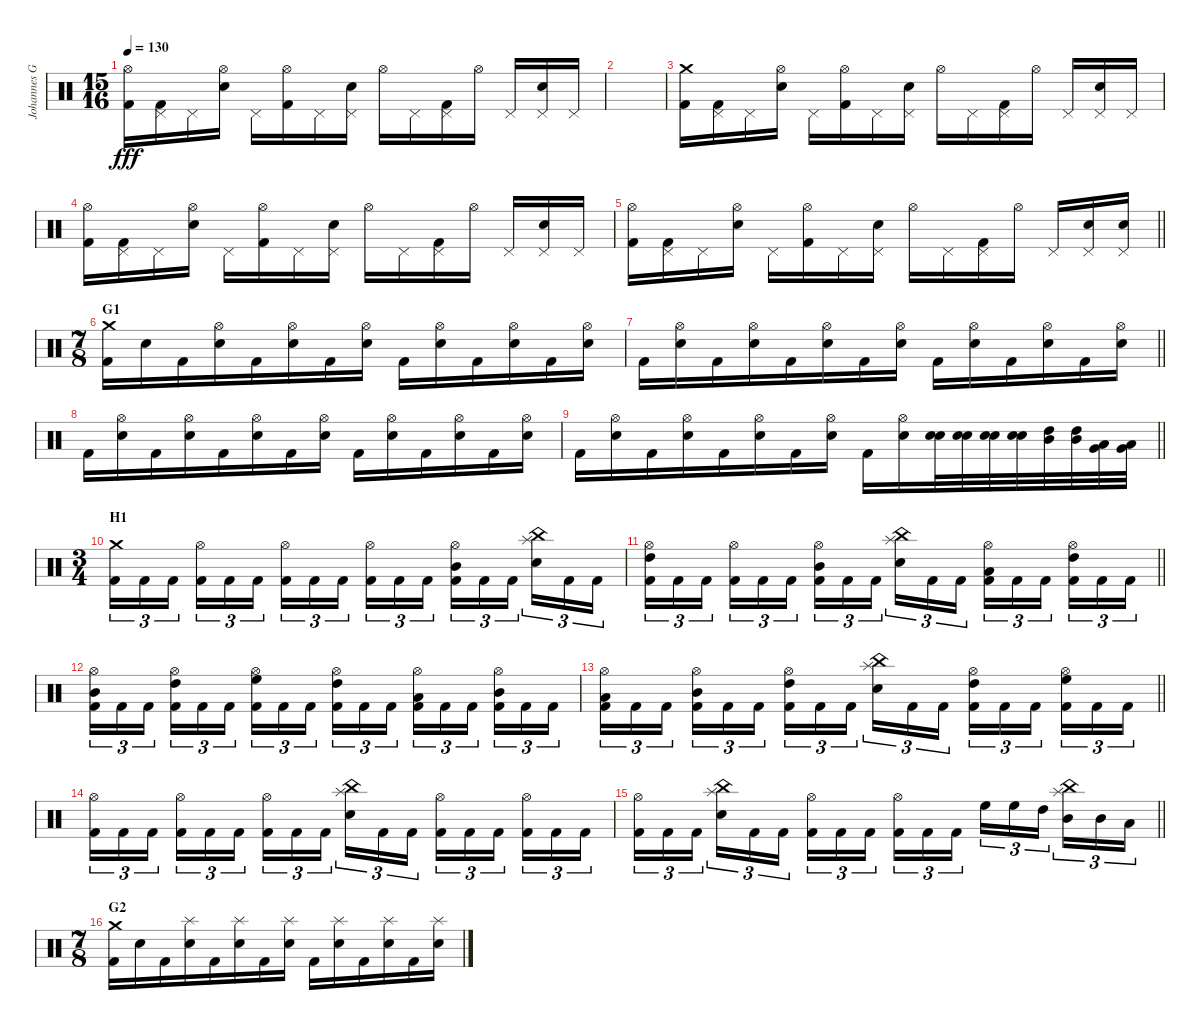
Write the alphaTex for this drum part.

\track ("Johannes Grossmann" "Johannes G") {instrument percussion}
\staff {score}
\articulation defaults
\ts (15 16)
\tempo 130
\clef neutral
\ks c
("Hi-Hat (open)" "Kick (hit) 2").16{dy fff} ("Pedal Hi-Hat (hit)" "Kick (hit) 2").16 "Pedal Hi-Hat (hit)".16 ("Hi-Hat (open)" "Snare (hit) 2").16 "Pedal Hi-Hat (hit)".16 ("Hi-Hat (open)" "Kick (hit) 2").16 "Pedal Hi-Hat (hit)".16 ("Pedal Hi-Hat (hit)" "Snare (hit) 2").16 "Hi-Hat (open)".16 "Pedal Hi-Hat (hit)".16 ("Pedal Hi-Hat (hit)" "Kick (hit) 2").16 "Hi-Hat (open)".16 "Pedal Hi-Hat (hit)".16 ("Pedal Hi-Hat (hit)" "Snare (hit) 2").16 "Pedal Hi-Hat (hit)".16 |
|
("Crash medium (hit)" "Kick (hit) 2").16 ("Pedal Hi-Hat (hit)" "Kick (hit) 2").16 "Pedal Hi-Hat (hit)".16 ("Hi-Hat (open)" "Snare (hit) 2").16 "Pedal Hi-Hat (hit)".16 ("Hi-Hat (open)" "Kick (hit) 2").16 "Pedal Hi-Hat (hit)".16 ("Pedal Hi-Hat (hit)" "Snare (hit) 2").16 "Hi-Hat (open)".16 "Pedal Hi-Hat (hit)".16 ("Pedal Hi-Hat (hit)" "Kick (hit) 2").16 "Hi-Hat (open)".16 "Pedal Hi-Hat (hit)".16 ("Pedal Hi-Hat (hit)" "Snare (hit) 2").16 "Pedal Hi-Hat (hit)".16 |
("Hi-Hat (open)" "Kick (hit) 2").16 ("Pedal Hi-Hat (hit)" "Kick (hit) 2").16 "Pedal Hi-Hat (hit)".16 ("Hi-Hat (open)" "Snare (hit) 2").16 "Pedal Hi-Hat (hit)".16 ("Hi-Hat (open)" "Kick (hit) 2").16 "Pedal Hi-Hat (hit)".16 ("Pedal Hi-Hat (hit)" "Snare (hit) 2").16 "Hi-Hat (open)".16 "Pedal Hi-Hat (hit)".16 ("Pedal Hi-Hat (hit)" "Kick (hit) 2").16 "Hi-Hat (open)".16 "Pedal Hi-Hat (hit)".16 ("Pedal Hi-Hat (hit)" "Snare (hit) 2").16 "Pedal Hi-Hat (hit)".16 |
\barLineRight lightlight
("Hi-Hat (open)" "Kick (hit) 2").16 ("Pedal Hi-Hat (hit)" "Kick (hit) 2").16 "Pedal Hi-Hat (hit)".16 ("Hi-Hat (open)" "Snare (hit) 2").16 "Pedal Hi-Hat (hit)".16 ("Hi-Hat (open)" "Kick (hit) 2").16 "Pedal Hi-Hat (hit)".16 ("Pedal Hi-Hat (hit)" "Snare (hit) 2").16 "Hi-Hat (open)".16 "Pedal Hi-Hat (hit)".16 ("Pedal Hi-Hat (hit)" "Kick (hit) 2").16 "Hi-Hat (open)".16 "Pedal Hi-Hat (hit)".16 ("Pedal Hi-Hat (hit)" "Snare (hit) 2").16 ("Pedal Hi-Hat (hit)" "Snare (hit) 2").16 |
\ts (7 8)
\section ("" "G1")
("Crash medium (hit)" "Kick (hit) 2").16 "Snare (hit) 2".16 "Kick (hit) 2".16 ("Hi-Hat (open)" "Snare (hit) 2").16 "Kick (hit) 2".16 ("Hi-Hat (open)" "Snare (hit) 2").16 "Kick (hit) 2".16 ("Hi-Hat (open)" "Snare (hit) 2").16 "Kick (hit) 2".16 ("Hi-Hat (open)" "Snare (hit) 2").16 "Kick (hit) 2".16 ("Hi-Hat (open)" "Snare (hit) 2").16 "Kick (hit) 2".16 ("Hi-Hat (open)" "Snare (hit) 2").16 |
\barLineRight lightlight "Kick (hit) 2".16
("Hi-Hat (open)" "Snare (hit) 2").16 "Kick (hit) 2".16 ("Hi-Hat (open)" "Snare (hit) 2").16 "Kick (hit) 2".16 ("Hi-Hat (open)" "Snare (hit) 2").16 "Kick (hit) 2".16 ("Hi-Hat (open)" "Snare (hit) 2").16 "Kick (hit) 2".16 ("Hi-Hat (open)" "Snare (hit) 2").16 "Kick (hit) 2".16 ("Hi-Hat (open)" "Snare (hit) 2").16 "Kick (hit) 2".16 ("Hi-Hat (open)" "Snare (hit) 2").16 |
"Kick (hit) 2".16 ("Hi-Hat (open)" "Snare (hit) 2").16 "Kick (hit) 2".16 ("Hi-Hat (open)" "Snare (hit) 2").16 "Kick (hit) 2".16 ("Hi-Hat (open)" "Snare (hit) 2").16 "Kick (hit) 2".16 ("Hi-Hat (open)" "Snare (hit) 2").16 "Kick (hit) 2".16 ("Hi-Hat (open)" "Snare (hit) 2").16 "Kick (hit) 2".16 ("Hi-Hat (open)" "Snare (hit) 2").16 "Kick (hit) 2".16 ("Hi-Hat (open)" "Snare (hit) 2").16 |
\barLineRight lightlight "Kick (hit) 2".16
("Hi-Hat (open)" "Snare (hit) 2").16 "Kick (hit) 2".16 ("Hi-Hat (open)" "Snare (hit) 2").16 "Kick (hit) 2".16 ("Hi-Hat (open)" "Snare (hit) 2").16 "Kick (hit) 2".16 ("Hi-Hat (open)" "Snare (hit) 2").16 "Kick (hit) 2".16 ("Hi-Hat (open)" "Snare (hit) 2").16 ("Electric Snare (hit)" "Snare (hit) 2").32 ("Electric Snare (hit)" "Snare (hit) 2").32 ("Electric Snare (hit)" "Snare (hit) 2").32 ("Electric Snare (hit)" "Snare (hit) 2").32 ("Mid Tom (hit)" "High Tom (hit)").32 ("Mid Tom (hit)" "High Tom (hit)").32 ("Very Low Tom (hit)" "Low Tom (hit)").32 ("Very Low Tom (hit)" "Low Tom (hit)").32 |
\ts (3 4)
\section ("" "H1")
("Crash medium (hit)" "Kick (hit) 2").16{tu (3 2)} "Kick (hit) 2".16{tu (3 2)} "Kick (hit) 2".16{tu (3 2) beam splitsecondary} ("Hi-Hat (open)" "Kick (hit) 2").16{tu (3 2)} "Kick (hit) 2".16{tu (3 2)} "Kick (hit) 2".16{tu (3 2)} ("Hi-Hat (open)" "Kick (hit) 2").16{tu (3 2)} "Kick (hit) 2".16{tu (3 2)} "Kick (hit) 2".16{tu (3 2) beam splitsecondary} ("Hi-Hat (open)" "Kick (hit) 2").16{tu (3 2)} "Kick (hit) 2".16{tu (3 2)} "Kick (hit) 2".16{tu (3 2)} ("Hi-Hat (open)" "Mid Tom (hit)" "Kick (hit) 2").16{tu (3 2)} "Kick (hit) 2".16{tu (3 2)} "Kick (hit) 2".16{tu (3 2) beam splitsecondary} ("China (hit)" "Splash (hit)" "Snare (hit) 2").16{tu (3 2)} "Kick (hit) 2".16{tu (3 2)} "Kick (hit) 2".16{tu (3 2)} |
\barLineRight lightlight
("Hi-Hat (open)" "High Tom (hit)" "Kick (hit) 2").16{tu (3 2)} "Kick (hit) 2".16{tu (3 2)} "Kick (hit) 2".16{tu (3 2) beam splitsecondary} ("Hi-Hat (open)" "Kick (hit) 2").16{tu (3 2)} "Kick (hit) 2".16{tu (3 2)} "Kick (hit) 2".16{tu (3 2)} ("Hi-Hat (open)" "Mid Tom (hit)" "Kick (hit) 2").16{tu (3 2)} "Kick (hit) 2".16{tu (3 2)} "Kick (hit) 2".16{tu (3 2) beam splitsecondary} ("China (hit)" "Splash (hit)" "Snare (hit) 2").16{tu (3 2)} "Kick (hit) 2".16{tu (3 2)} "Kick (hit) 2".16{tu (3 2)} ("Hi-Hat (open)" "Low Tom (hit)" "Kick (hit) 2").16{tu (3 2)} "Kick (hit) 2".16{tu (3 2)} "Kick (hit) 2".16{tu (3 2) beam splitsecondary} ("Hi-Hat (open)" "High Tom (hit)" "Kick (hit) 2").16{tu (3 2)} "Kick (hit) 2".16{tu (3 2)} "Kick (hit) 2".16{tu (3 2)} |
("Hi-Hat (open)" "Mid Tom (hit)" "Kick (hit) 2").16{tu (3 2)} "Kick (hit) 2".16{tu (3 2)} "Kick (hit) 2".16{tu (3 2) beam splitsecondary} ("Hi-Hat (open)" "High Tom (hit)" "Kick (hit) 2").16{tu (3 2)} "Kick (hit) 2".16{tu (3 2)} "Kick (hit) 2".16{tu (3 2)} ("Hi-Hat (open)" "High Floor Tom (hit)" "Kick (hit) 2").16{tu (3 2)} "Kick (hit) 2".16{tu (3 2)} "Kick (hit) 2".16{tu (3 2) beam splitsecondary} ("Hi-Hat (open)" "High Tom (hit)" "Kick (hit) 2").16{tu (3 2)} "Kick (hit) 2".16{tu (3 2)} "Kick (hit) 2".16{tu (3 2)} ("Hi-Hat (open)" "Low Tom (hit)" "Kick (hit) 2").16{tu (3 2)} "Kick (hit) 2".16{tu (3 2)} "Kick (hit) 2".16{tu (3 2) beam splitsecondary} ("Hi-Hat (open)" "Mid Tom (hit)" "Kick (hit) 2").16{tu (3 2)} "Kick (hit) 2".16{tu (3 2)} "Kick (hit) 2".16{tu (3 2)} |
\barLineRight lightlight
("Hi-Hat (open)" "Low Tom (hit)" "Kick (hit) 2").16{tu (3 2)} "Kick (hit) 2".16{tu (3 2)} "Kick (hit) 2".16{tu (3 2) beam splitsecondary} ("Hi-Hat (open)" "Mid Tom (hit)" "Kick (hit) 2").16{tu (3 2)} "Kick (hit) 2".16{tu (3 2)} "Kick (hit) 2".16{tu (3 2)} ("Hi-Hat (open)" "High Tom (hit)" "Kick (hit) 2").16{tu (3 2)} "Kick (hit) 2".16{tu (3 2)} "Kick (hit) 2".16{tu (3 2) beam splitsecondary} ("Splash (hit)" "China (hit)" "Snare (hit) 2").16{tu (3 2)} "Kick (hit) 2".16{tu (3 2)} "Kick (hit) 2".16{tu (3 2)} ("Hi-Hat (open)" "High Tom (hit)" "Kick (hit) 2").16{tu (3 2)} "Kick (hit) 2".16{tu (3 2)} "Kick (hit) 2".16{tu (3 2) beam splitsecondary} ("Hi-Hat (open)" "High Floor Tom (hit)" "Kick (hit) 2").16{tu (3 2)} "Kick (hit) 2".16{tu (3 2)} "Kick (hit) 2".16{tu (3 2)} |
("Hi-Hat (open)" "Kick (hit) 2").16{tu (3 2)} "Kick (hit) 2".16{tu (3 2)} "Kick (hit) 2".16{tu (3 2) beam splitsecondary} ("Hi-Hat (open)" "Kick (hit) 2").16{tu (3 2)} "Kick (hit) 2".16{tu (3 2)} "Kick (hit) 2".16{tu (3 2)} ("Hi-Hat (open)" "Kick (hit) 2").16{tu (3 2)} "Kick (hit) 2".16{tu (3 2)} "Kick (hit) 2".16{tu (3 2) beam splitsecondary} ("China (hit)" "Splash (hit)" "Snare (hit) 2").16{tu (3 2)} "Kick (hit) 2".16{tu (3 2)} "Kick (hit) 2".16{tu (3 2)} ("Hi-Hat (open)" "Kick (hit) 2").16{tu (3 2)} "Kick (hit) 2".16{tu (3 2)} "Kick (hit) 2".16{tu (3 2) beam splitsecondary} ("Hi-Hat (open)" "Kick (hit) 2").16{tu (3 2)} "Kick (hit) 2".16{tu (3 2)} "Kick (hit) 2".16{tu (3 2)} |
\barLineRight lightlight
("Hi-Hat (open)" "Kick (hit) 2").16{tu (3 2)} "Kick (hit) 2".16{tu (3 2)} "Kick (hit) 2".16{tu (3 2) beam splitsecondary} ("Splash (hit)" "China (hit)" "Snare (hit) 2").16{tu (3 2)} "Kick (hit) 2".16{tu (3 2)} "Kick (hit) 2".16{tu (3 2)} ("Hi-Hat (open)" "Kick (hit) 2").16{tu (3 2)} "Kick (hit) 2".16{tu (3 2)} "Kick (hit) 2".16{tu (3 2) beam splitsecondary} ("Hi-Hat (open)" "Kick (hit) 2").16{tu (3 2)} "Kick (hit) 2".16{tu (3 2)} "Kick (hit) 2".16{tu (3 2)} "High Floor Tom (hit)".16{tu (3 2)} "High Floor Tom (hit)".16{tu (3 2)} "High Tom (hit)".16{tu (3 2) beam splitsecondary} ("China (hit)" "Splash (hit)" "Mid Tom (hit)").16{tu (3 2)} "Mid Tom (hit)".16{tu (3 2)} "Low Floor Tom (hit)".16{tu (3 2)} |
\ts (7 8)
\section ("" "G2")
("Crash medium (hit)" "Kick (hit) 2").16 "Snare (hit) 2".16 "Kick (hit) 2".16 ("Splash (hit)" "Snare (hit) 2").16 "Kick (hit) 2".16 ("Splash (hit)" "Snare (hit) 2").16 "Kick (hit) 2".16 ("Splash (hit)" "Snare (hit) 2").16 "Kick (hit) 2".16 ("Splash (hit)" "Snare (hit) 2").16 "Kick (hit) 2".16 ("Splash (hit)" "Snare (hit) 2").16 "Kick (hit) 2".16 ("Splash (hit)" "Snare (hit) 2").16
